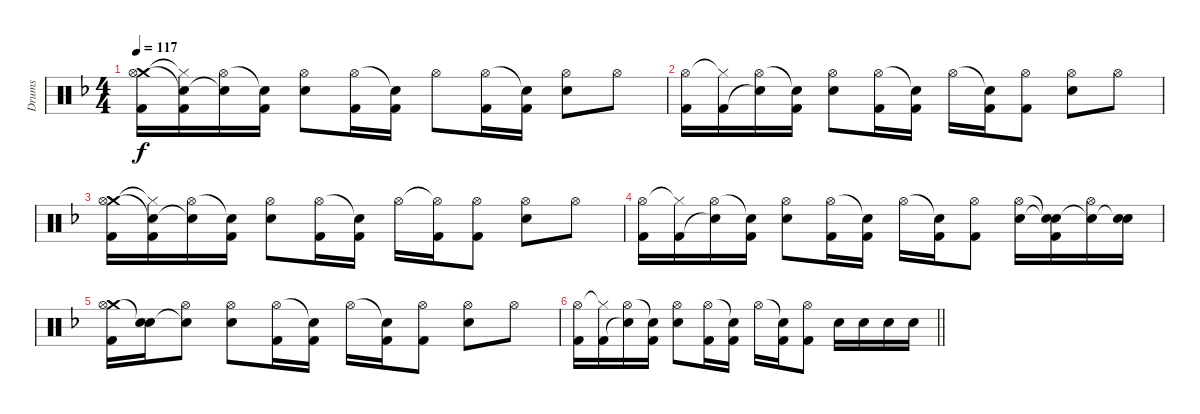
\track ("Drums" "Drums") {instrument percussion}
\staff {score}
\articulation defaults
\ts (4 4)
\tempo 117
\clef neutral
\ks dminor
("Crash medium (hit)" "Hi-Hat (open)" "Kick (hit) 2").16{dy f} ("Hi-Hat (closed)"{t} "Snare (hit)"{t} "Kick (hit) 2").16 ("Hi-Hat (open)" "Snare (hit)"{t}).16 ("Snare (hit)"{t} "Kick (hit) 2").16 ("Hi-Hat (open)" "Electric Snare (hit)").8 ("Hi-Hat (open)" "Kick (hit) 2").16 ("Snare (hit)"{t} "Kick (hit) 2").16 "Hi-Hat (open)".8 ("Hi-Hat (open)" "Kick (hit) 2").16 ("Snare (hit)"{t} "Kick (hit) 2").16 ("Hi-Hat (open)" "Electric Snare (hit)").8 "Hi-Hat (open)".8 |
("Hi-Hat (open)" "Kick (hit) 2").16 ("Hi-Hat (closed)"{t} "Kick (hit) 2").16 ("Hi-Hat (open)" "Snare (hit)"{t}).16 ("Snare (hit)"{t} "Kick (hit) 2").16 ("Hi-Hat (open)" "Electric Snare (hit)").8 ("Hi-Hat (open)" "Kick (hit) 2").16 ("Snare (hit)"{t} "Kick (hit) 2").16 "Hi-Hat (open)".16 ("Snare (hit)"{t} "Kick (hit) 2").16 ("Hi-Hat (open)" "Kick (hit) 2").8 ("Hi-Hat (open)" "Electric Snare (hit)").8 "Hi-Hat (open)".8 |
("Crash medium (hit)" "Hi-Hat (open)" "Kick (hit) 2").16 ("Hi-Hat (closed)"{t} "Snare (hit)"{t} "Kick (hit) 2").16 ("Hi-Hat (open)" "Snare (hit)"{t}).16 ("Snare (hit)"{t} "Kick (hit) 2").16 ("Hi-Hat (open)" "Electric Snare (hit)").8 ("Hi-Hat (open)" "Kick (hit) 2").16 ("Snare (hit)"{t} "Kick (hit) 2").16 "Hi-Hat (open)".16 ("Hi-Hat (open)"{t} "Kick (hit) 2").16 ("Hi-Hat (open)" "Kick (hit) 2").8 ("Hi-Hat (open)" "Electric Snare (hit)").8 "Hi-Hat (open)".8 |
("Hi-Hat (open)" "Kick (hit) 2").16 ("Hi-Hat (closed)"{t} "Kick (hit) 2").16 ("Hi-Hat (open)" "Snare (hit)"{t}).16 ("Snare (hit)"{t} "Kick (hit) 2").16 ("Hi-Hat (open)" "Electric Snare (hit)").8 ("Hi-Hat (open)" "Kick (hit) 2").16 ("Snare (hit)"{t} "Kick (hit) 2").16 "Hi-Hat (open)".16 ("Snare (hit)"{t} "Kick (hit) 2").16 ("Hi-Hat (open)" "Kick (hit) 2").8 ("Hi-Hat (open)" "Electric Snare (hit)").16 ("Snare (hit)"{t} "Snare (hit)"{t} "Kick (hit) 2").16 ("Hi-Hat (open)" "Snare (hit)"{t}).16 ("Electric Snare (hit)" "Snare (hit)"{t}).16 |
("Crash medium (hit)" "Hi-Hat (open)" "Kick (hit) 2").16 ("Electric Snare (hit)" "Snare (hit)"{t}).16 ("Hi-Hat (open)" "Snare (hit)"{t}).8 ("Hi-Hat (open)" "Electric Snare (hit)").8 ("Hi-Hat (open)" "Kick (hit) 2").16 ("Snare (hit)"{t} "Kick (hit) 2").16 "Hi-Hat (open)".16 ("Snare (hit)"{t} "Kick (hit) 2").16 ("Hi-Hat (open)" "Kick (hit) 2").8 ("Hi-Hat (open)" "Electric Snare (hit)").8 "Hi-Hat (open)".8 |
\barLineRight lightlight
("Hi-Hat (open)" "Kick (hit) 2").16 ("Hi-Hat (closed)"{t} "Kick (hit) 2").16 ("Hi-Hat (open)" "Snare (hit)"{t}).16 ("Snare (hit)"{t} "Kick (hit) 2").16 ("Hi-Hat (open)" "Electric Snare (hit)").8 ("Hi-Hat (open)" "Kick (hit) 2").16 ("Snare (hit)"{t} "Kick (hit) 2").16 "Hi-Hat (open)".16 ("Snare (hit)"{t} "Kick (hit) 2").16 ("Hi-Hat (open)" "Kick (hit) 2").8 "Electric Snare (hit)".16 "Electric Snare (hit)".16 "Electric Snare (hit)".16 "Electric Snare (hit)".16
